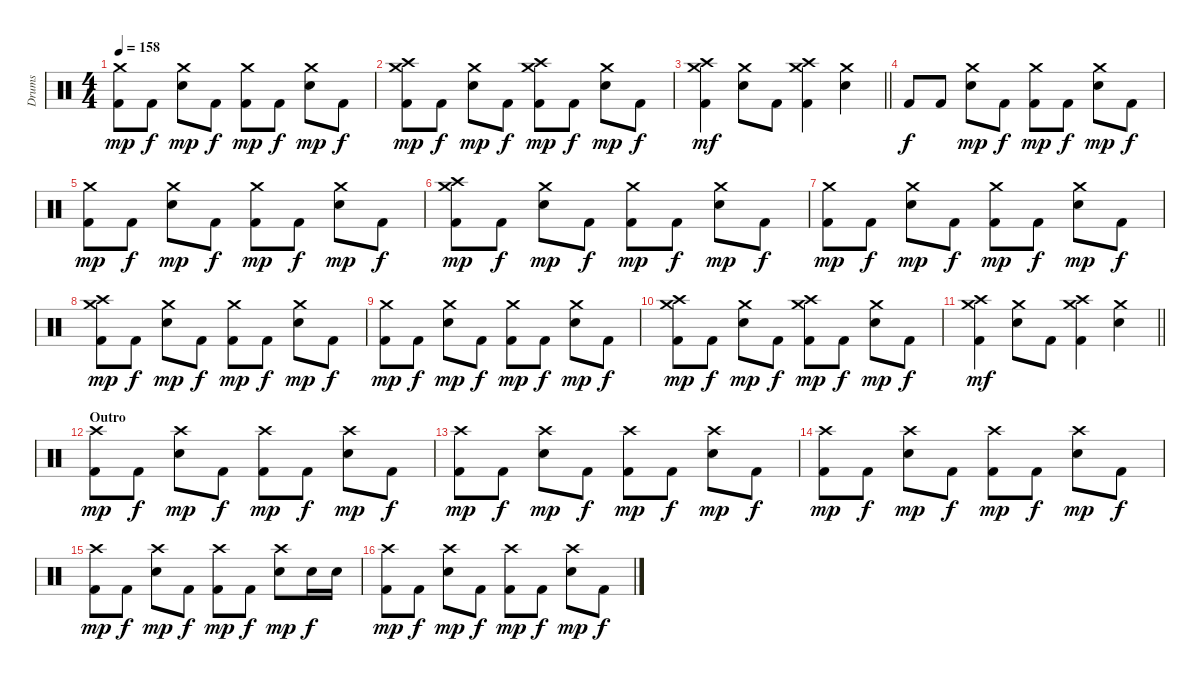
\track ("Drums" "Drums") {instrument percussion}
\staff {score}
\articulation defaults
\ts (4 4)
\tempo 158
\clef neutral
\ks c
("Crash medium (hit)" "Kick (hit) 2").8{dy mp} "Kick (hit) 2".8{dy f} ("Crash medium (hit)" "Electric Snare (hit)").8{dy mp} "Kick (hit) 2".8{dy f} ("Crash medium (hit)" "Kick (hit) 2").8{dy mp} "Kick (hit) 2".8{dy f} ("Crash medium (hit)" "Electric Snare (hit)").8{dy mp} "Kick (hit) 2".8{dy f} |
("Crash high (hit)" "Crash medium (hit)" "Kick (hit) 2").8{dy mp} "Kick (hit) 2".8{dy f} ("Crash medium (hit)" "Electric Snare (hit)").8{dy mp} "Kick (hit) 2".8{dy f} ("Crash high (hit)" "Crash medium (hit)" "Kick (hit) 2").8{dy mp} "Kick (hit) 2".8{dy f} ("Crash medium (hit)" "Electric Snare (hit)").8{dy mp} "Kick (hit) 2".8{dy f} |
\barLineRight lightlight
("Crash high (hit)" "Crash medium (hit)" "Kick (hit) 2").4{dy mf} ("Crash medium (hit)" "Electric Snare (hit)").8 "Kick (hit) 2".8 ("Crash high (hit)" "Crash medium (hit)" "Kick (hit) 2").4 ("Crash medium (hit)" "Electric Snare (hit)").4 |
"Kick (hit) 2".8{dy f} "Kick (hit) 2".8 ("Crash medium (hit)" "Electric Snare (hit)").8{dy mp} "Kick (hit) 2".8{dy f} ("Crash medium (hit)" "Kick (hit) 2").8{dy mp} "Kick (hit) 2".8{dy f} ("Crash medium (hit)" "Electric Snare (hit)").8{dy mp} "Kick (hit) 2".8{dy f} |
("Crash medium (hit)" "Kick (hit) 2").8{dy mp} "Kick (hit) 2".8{dy f} ("Crash medium (hit)" "Electric Snare (hit)").8{dy mp} "Kick (hit) 2".8{dy f} ("Crash medium (hit)" "Kick (hit) 2").8{dy mp} "Kick (hit) 2".8{dy f} ("Crash medium (hit)" "Electric Snare (hit)").8{dy mp} "Kick (hit) 2".8{dy f} |
("Crash high (hit)" "Crash medium (hit)" "Kick (hit) 2").8{dy mp} "Kick (hit) 2".8{dy f} ("Crash medium (hit)" "Electric Snare (hit)").8{dy mp} "Kick (hit) 2".8{dy f} ("Crash medium (hit)" "Kick (hit) 2").8{dy mp} "Kick (hit) 2".8{dy f} ("Crash medium (hit)" "Electric Snare (hit)").8{dy mp} "Kick (hit) 2".8{dy f} |
("Crash medium (hit)" "Kick (hit) 2").8{dy mp} "Kick (hit) 2".8{dy f} ("Crash medium (hit)" "Electric Snare (hit)").8{dy mp} "Kick (hit) 2".8{dy f} ("Crash medium (hit)" "Kick (hit) 2").8{dy mp} "Kick (hit) 2".8{dy f} ("Crash medium (hit)" "Electric Snare (hit)").8{dy mp} "Kick (hit) 2".8{dy f} |
("Crash high (hit)" "Crash medium (hit)" "Kick (hit) 2").8{dy mp} "Kick (hit) 2".8{dy f} ("Crash medium (hit)" "Electric Snare (hit)").8{dy mp} "Kick (hit) 2".8{dy f} ("Crash medium (hit)" "Kick (hit) 2").8{dy mp} "Kick (hit) 2".8{dy f} ("Crash medium (hit)" "Electric Snare (hit)").8{dy mp} "Kick (hit) 2".8{dy f} |
("Crash medium (hit)" "Kick (hit) 2").8{dy mp} "Kick (hit) 2".8{dy f} ("Crash medium (hit)" "Electric Snare (hit)").8{dy mp} "Kick (hit) 2".8{dy f} ("Crash medium (hit)" "Kick (hit) 2").8{dy mp} "Kick (hit) 2".8{dy f} ("Crash medium (hit)" "Electric Snare (hit)").8{dy mp} "Kick (hit) 2".8{dy f} |
("Crash high (hit)" "Crash medium (hit)" "Kick (hit) 2").8{dy mp} "Kick (hit) 2".8{dy f} ("Crash medium (hit)" "Electric Snare (hit)").8{dy mp} "Kick (hit) 2".8{dy f} ("Crash high (hit)" "Crash medium (hit)" "Kick (hit) 2").8{dy mp} "Kick (hit) 2".8{dy f} ("Crash medium (hit)" "Electric Snare (hit)").8{dy mp} "Kick (hit) 2".8{dy f} |
\barLineRight lightlight
("Crash high (hit)" "Crash medium (hit)" "Kick (hit) 2").4{dy mf} ("Crash medium (hit)" "Electric Snare (hit)").8 "Kick (hit) 2".8 ("Crash high (hit)" "Crash medium (hit)" "Kick (hit) 2").4 ("Crash medium (hit)" "Electric Snare (hit)").4 |
\section ("" "Outro")
("Crash high (hit)" "Kick (hit) 2").8{dy mp} "Kick (hit) 2".8{dy f} ("Crash high (hit)" "Electric Snare (hit)").8{dy mp} "Kick (hit) 2".8{dy f} ("Crash high (hit)" "Kick (hit) 2").8{dy mp} "Kick (hit) 2".8{dy f} ("Crash high (hit)" "Electric Snare (hit)").8{dy mp} "Kick (hit) 2".8{dy f} |
("Crash high (hit)" "Kick (hit) 2").8{dy mp} "Kick (hit) 2".8{dy f} ("Crash high (hit)" "Electric Snare (hit)").8{dy mp} "Kick (hit) 2".8{dy f} ("Crash high (hit)" "Kick (hit) 2").8{dy mp} "Kick (hit) 2".8{dy f} ("Crash high (hit)" "Electric Snare (hit)").8{dy mp} "Kick (hit) 2".8{dy f} |
("Crash high (hit)" "Kick (hit) 2").8{dy mp} "Kick (hit) 2".8{dy f} ("Crash high (hit)" "Electric Snare (hit)").8{dy mp} "Kick (hit) 2".8{dy f} ("Crash high (hit)" "Kick (hit) 2").8{dy mp} "Kick (hit) 2".8{dy f} ("Crash high (hit)" "Electric Snare (hit)").8{dy mp} "Kick (hit) 2".8{dy f} |
("Crash high (hit)" "Kick (hit) 2").8{dy mp} "Kick (hit) 2".8{dy f} ("Crash high (hit)" "Electric Snare (hit)").8{dy mp} "Kick (hit) 2".8{dy f} ("Crash high (hit)" "Kick (hit) 2").8{dy mp} "Kick (hit) 2".8{dy f} ("Crash high (hit)" "Electric Snare (hit)").8{dy mp} "Electric Snare (hit)".16{dy f} "Electric Snare (hit)".16 |
("Crash high (hit)" "Kick (hit) 2").8{dy mp} "Kick (hit) 2".8{dy f} ("Crash high (hit)" "Electric Snare (hit)").8{dy mp} "Kick (hit) 2".8{dy f} ("Crash high (hit)" "Kick (hit) 2").8{dy mp} "Kick (hit) 2".8{dy f} ("Crash high (hit)" "Electric Snare (hit)").8{dy mp} "Kick (hit) 2".8{dy f}
